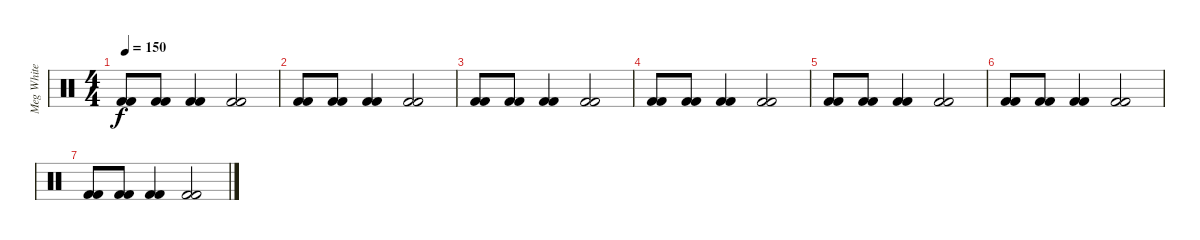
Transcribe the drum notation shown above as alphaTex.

\track ("Meg White" "Meg White") {instrument percussion}
\staff {score}
\articulation defaults
\ts (4 4)
\tempo 150
\clef neutral
\ks c
("Kick (hit) 2" "Kick (hit) 2").8{dy f} ("Kick (hit) 2" "Kick (hit) 2").8 ("Kick (hit) 2" "Kick (hit) 2").4 ("Kick (hit) 2" "Kick (hit) 2").2 |
("Kick (hit) 2" "Kick (hit) 2").8 ("Kick (hit) 2" "Kick (hit) 2").8 ("Kick (hit) 2" "Kick (hit) 2").4 ("Kick (hit) 2" "Kick (hit) 2").2 |
("Kick (hit) 2" "Kick (hit) 2").8 ("Kick (hit) 2" "Kick (hit) 2").8 ("Kick (hit) 2" "Kick (hit) 2").4 ("Kick (hit) 2" "Kick (hit) 2").2 |
("Kick (hit) 2" "Kick (hit) 2").8 ("Kick (hit) 2" "Kick (hit) 2").8 ("Kick (hit) 2" "Kick (hit) 2").4 ("Kick (hit) 2" "Kick (hit) 2").2 |
("Kick (hit) 2" "Kick (hit) 2").8 ("Kick (hit) 2" "Kick (hit) 2").8 ("Kick (hit) 2" "Kick (hit) 2").4 ("Kick (hit) 2" "Kick (hit) 2").2 |
("Kick (hit) 2" "Kick (hit) 2").8 ("Kick (hit) 2" "Kick (hit) 2").8 ("Kick (hit) 2" "Kick (hit) 2").4 ("Kick (hit) 2" "Kick (hit) 2").2 |
("Kick (hit) 2" "Kick (hit) 2").8 ("Kick (hit) 2" "Kick (hit) 2").8 ("Kick (hit) 2" "Kick (hit) 2").4 ("Kick (hit) 2" "Kick (hit) 2").2
